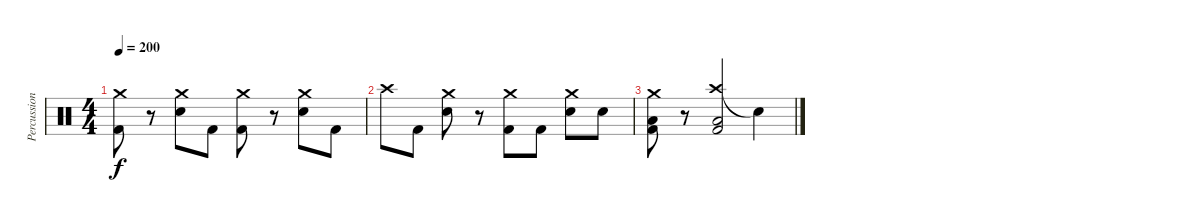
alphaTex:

\track ("Percussion" "Percussion") {instrument percussion}
\staff {score}
\articulation defaults
\ts (4 4)
\tempo 200
\clef neutral
\ks c
("Crash medium (hit)" "Kick (hit) 2").8{dy f} r.8 ("Crash medium (hit)" "Electric Snare (hit)").8 "Kick (hit) 2".8 ("Crash medium (hit)" "Kick (hit) 2").8 r.8 ("Crash medium (hit)" "Electric Snare (hit)").8 "Kick (hit) 2".8 |
"Crash high (hit)".8 "Kick (hit) 2".8 ("Crash medium (hit)" "Electric Snare (hit)").8 r.8 ("Crash medium (hit)" "Kick (hit) 2").8 "Kick (hit) 2".8 ("Crash medium (hit)" "Electric Snare (hit)").8 "Electric Snare (hit)".8 |
("Crash medium (hit)" "Low Floor Tom (hit)" "Kick (hit) 2").8 r.8 ("Crash high (hit)" "Low Floor Tom (hit)" "Kick (hit) 2").2 "Snare (hit)"{t}.4
